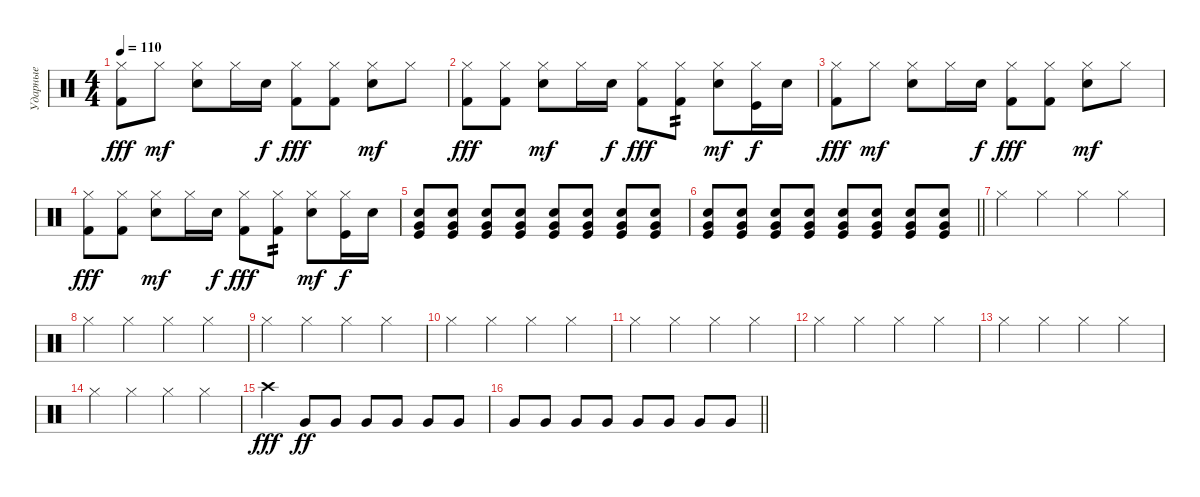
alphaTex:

\track ("Ударные" "Ударные") {instrument percussion}
\staff {score}
\articulation defaults
\ts (4 4)
\tempo 110
\clef neutral
\ks c
("Hi-Hat (closed)" "Kick (hit) 2").8{dy fff} "Hi-Hat (closed)".8{dy mf} ("Hi-Hat (closed)" "Snare (hit) 2").8 "Hi-Hat (closed)".16 "Snare (hit) 2".16{dy f} ("Hi-Hat (closed)" "Kick (hit) 2").8{dy fff} ("Hi-Hat (closed)" "Kick (hit) 2").8 ("Hi-Hat (closed)" "Snare (hit) 2").8{dy mf} "Hi-Hat (closed)".8 |
("Hi-Hat (closed)" "Kick (hit) 2").8{dy fff} ("Hi-Hat (closed)" "Kick (hit) 2").8 ("Hi-Hat (closed)" "Snare (hit) 2").8{dy mf} "Hi-Hat (closed)".16 "Snare (hit) 2".16{dy f} ("Hi-Hat (closed)" "Kick (hit) 2").8{dy fff} ("Hi-Hat (closed)" "Kick (hit) 2").8{tp 2} ("Hi-Hat (closed)" "Snare (hit) 2").8{dy mf} ("Kick (hit)" "Hi-Hat (closed)").16{dy f} "Snare (hit) 2".16 |
("Hi-Hat (closed)" "Kick (hit) 2").8{dy fff} "Hi-Hat (closed)".8{dy mf} ("Hi-Hat (closed)" "Snare (hit) 2").8 "Hi-Hat (closed)".16 "Snare (hit) 2".16{dy f} ("Hi-Hat (closed)" "Kick (hit) 2").8{dy fff} ("Hi-Hat (closed)" "Kick (hit) 2").8 ("Hi-Hat (closed)" "Snare (hit) 2").8{dy mf} "Hi-Hat (closed)".8 |
("Hi-Hat (closed)" "Kick (hit) 2").8{dy fff} ("Hi-Hat (closed)" "Kick (hit) 2").8 ("Hi-Hat (closed)" "Snare (hit) 2").8{dy mf} "Hi-Hat (closed)".16 "Snare (hit) 2".16{dy f} ("Hi-Hat (closed)" "Kick (hit) 2").8{dy fff} ("Hi-Hat (closed)" "Kick (hit) 2").8{tp 2} ("Hi-Hat (closed)" "Snare (hit) 2").8{dy mf} ("Kick (hit)" "Hi-Hat (closed)").16{dy f} "Snare (hit) 2".16 |
("Kick (hit)" "Snare (hit) 2" "Very Low Tom (hit)").8 ("Kick (hit)" "Snare (hit) 2" "Very Low Tom (hit)").8 ("Kick (hit)" "Snare (hit) 2" "Very Low Tom (hit)").8 ("Kick (hit)" "Snare (hit) 2" "Very Low Tom (hit)").8 ("Kick (hit)" "Snare (hit) 2" "Very Low Tom (hit)").8 ("Kick (hit)" "Snare (hit) 2" "Very Low Tom (hit)").8 ("Kick (hit)" "Snare (hit) 2" "Very Low Tom (hit)").8 ("Kick (hit)" "Snare (hit) 2" "Very Low Tom (hit)").8 |
\barLineRight lightlight
("Kick (hit)" "Snare (hit) 2" "Very Low Tom (hit)").8 ("Kick (hit)" "Snare (hit) 2" "Very Low Tom (hit)").8 ("Kick (hit)" "Snare (hit) 2" "Very Low Tom (hit)").8 ("Kick (hit)" "Snare (hit) 2" "Very Low Tom (hit)").8 ("Kick (hit)" "Snare (hit) 2" "Very Low Tom (hit)").8 ("Kick (hit)" "Snare (hit) 2" "Very Low Tom (hit)").8 ("Kick (hit)" "Snare (hit) 2" "Very Low Tom (hit)").8 ("Kick (hit)" "Snare (hit) 2" "Very Low Tom (hit)").8 |
"Hi-Hat (closed)".4 "Hi-Hat (closed)".4 "Hi-Hat (closed)".4 "Hi-Hat (closed)".4 |
"Hi-Hat (closed)".4 "Hi-Hat (closed)".4 "Hi-Hat (closed)".4 "Hi-Hat (closed)".4 |
"Hi-Hat (closed)".4 "Hi-Hat (closed)".4 "Hi-Hat (closed)".4 "Hi-Hat (closed)".4 |
"Hi-Hat (closed)".4 "Hi-Hat (closed)".4 "Hi-Hat (closed)".4 "Hi-Hat (closed)".4 |
"Hi-Hat (closed)".4 "Hi-Hat (closed)".4 "Hi-Hat (closed)".4 "Hi-Hat (closed)".4 |
"Hi-Hat (closed)".4 "Hi-Hat (closed)".4 "Hi-Hat (closed)".4 "Hi-Hat (closed)".4 |
"Hi-Hat (closed)".4 "Hi-Hat (closed)".4 "Hi-Hat (closed)".4 "Hi-Hat (closed)".4 |
"Hi-Hat (closed)".4 "Hi-Hat (closed)".4 "Hi-Hat (closed)".4 "Hi-Hat (closed)".4 |
"Crash high (hit)".4{dy fff} "Very Low Tom (hit)".8{dy ff volume 2} "Very Low Tom (hit)".8{volume 13} "Very Low Tom (hit)".8 "Very Low Tom (hit)".8 "Very Low Tom (hit)".8 "Very Low Tom (hit)".8 |
\barLineRight lightlight "Very Low Tom (hit)".8 "Very Low Tom (hit)".8 "Very Low Tom (hit)".8 "Very Low Tom (hit)".8 "Very Low Tom (hit)".8 "Very Low Tom (hit)".8 "Very Low Tom (hit)".8 "Very Low Tom (hit)".8
